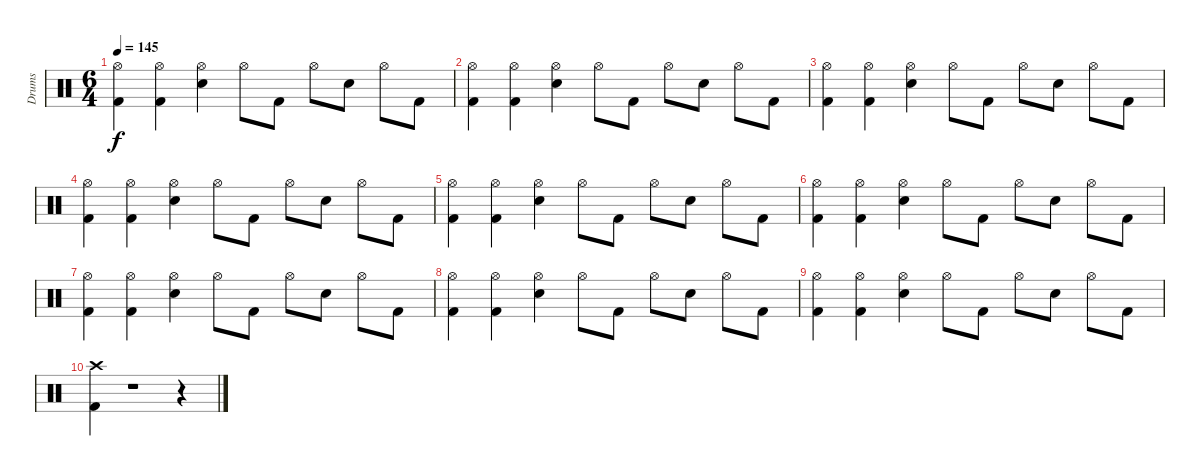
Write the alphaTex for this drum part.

\track ("Drums" "Drums") {instrument percussion}
\staff {score}
\articulation defaults
\ts (6 4)
\tempo 145
\clef neutral
\ks c
("Hi-Hat (open)" "Kick (hit) 2").4{dy f} ("Hi-Hat (open)" "Kick (hit) 2").4 ("Hi-Hat (open)" "Snare (hit) 2").4 "Hi-Hat (open)".8 "Kick (hit) 2".8 "Hi-Hat (open)".8 "Snare (hit) 2".8 "Hi-Hat (open)".8 "Kick (hit) 2".8 |
("Hi-Hat (open)" "Kick (hit) 2").4 ("Hi-Hat (open)" "Kick (hit) 2").4 ("Hi-Hat (open)" "Snare (hit) 2").4 "Hi-Hat (open)".8 "Kick (hit) 2".8 "Hi-Hat (open)".8 "Snare (hit) 2".8 "Hi-Hat (open)".8 "Kick (hit) 2".8 |
("Hi-Hat (open)" "Kick (hit) 2").4 ("Hi-Hat (open)" "Kick (hit) 2").4 ("Hi-Hat (open)" "Snare (hit) 2").4 "Hi-Hat (open)".8 "Kick (hit) 2".8 "Hi-Hat (open)".8 "Snare (hit) 2".8 "Hi-Hat (open)".8 "Kick (hit) 2".8 |
("Hi-Hat (open)" "Kick (hit) 2").4 ("Hi-Hat (open)" "Kick (hit) 2").4 ("Hi-Hat (open)" "Snare (hit) 2").4 "Hi-Hat (open)".8 "Kick (hit) 2".8 "Hi-Hat (open)".8 "Snare (hit) 2".8 "Hi-Hat (open)".8 "Kick (hit) 2".8 |
("Hi-Hat (open)" "Kick (hit) 2").4 ("Hi-Hat (open)" "Kick (hit) 2").4 ("Hi-Hat (open)" "Snare (hit) 2").4 "Hi-Hat (open)".8 "Kick (hit) 2".8 "Hi-Hat (open)".8 "Snare (hit) 2".8 "Hi-Hat (open)".8 "Kick (hit) 2".8 |
("Hi-Hat (open)" "Kick (hit) 2").4 ("Hi-Hat (open)" "Kick (hit) 2").4 ("Hi-Hat (open)" "Snare (hit) 2").4 "Hi-Hat (open)".8 "Kick (hit) 2".8 "Hi-Hat (open)".8 "Snare (hit) 2".8 "Hi-Hat (open)".8 "Kick (hit) 2".8 |
("Hi-Hat (open)" "Kick (hit) 2").4 ("Hi-Hat (open)" "Kick (hit) 2").4 ("Hi-Hat (open)" "Snare (hit) 2").4 "Hi-Hat (open)".8 "Kick (hit) 2".8 "Hi-Hat (open)".8 "Snare (hit) 2".8 "Hi-Hat (open)".8 "Kick (hit) 2".8 |
("Hi-Hat (open)" "Kick (hit) 2").4 ("Hi-Hat (open)" "Kick (hit) 2").4 ("Hi-Hat (open)" "Snare (hit) 2").4 "Hi-Hat (open)".8 "Kick (hit) 2".8 "Hi-Hat (open)".8 "Snare (hit) 2".8 "Hi-Hat (open)".8 "Kick (hit) 2".8 |
("Hi-Hat (open)" "Kick (hit) 2").4 ("Hi-Hat (open)" "Kick (hit) 2").4 ("Hi-Hat (open)" "Snare (hit) 2").4 "Hi-Hat (open)".8 "Kick (hit) 2".8 "Hi-Hat (open)".8 "Snare (hit) 2".8 "Hi-Hat (open)".8 "Kick (hit) 2".8 |
("Crash high (hit)" "Kick (hit) 2").4 r.1 r.4
